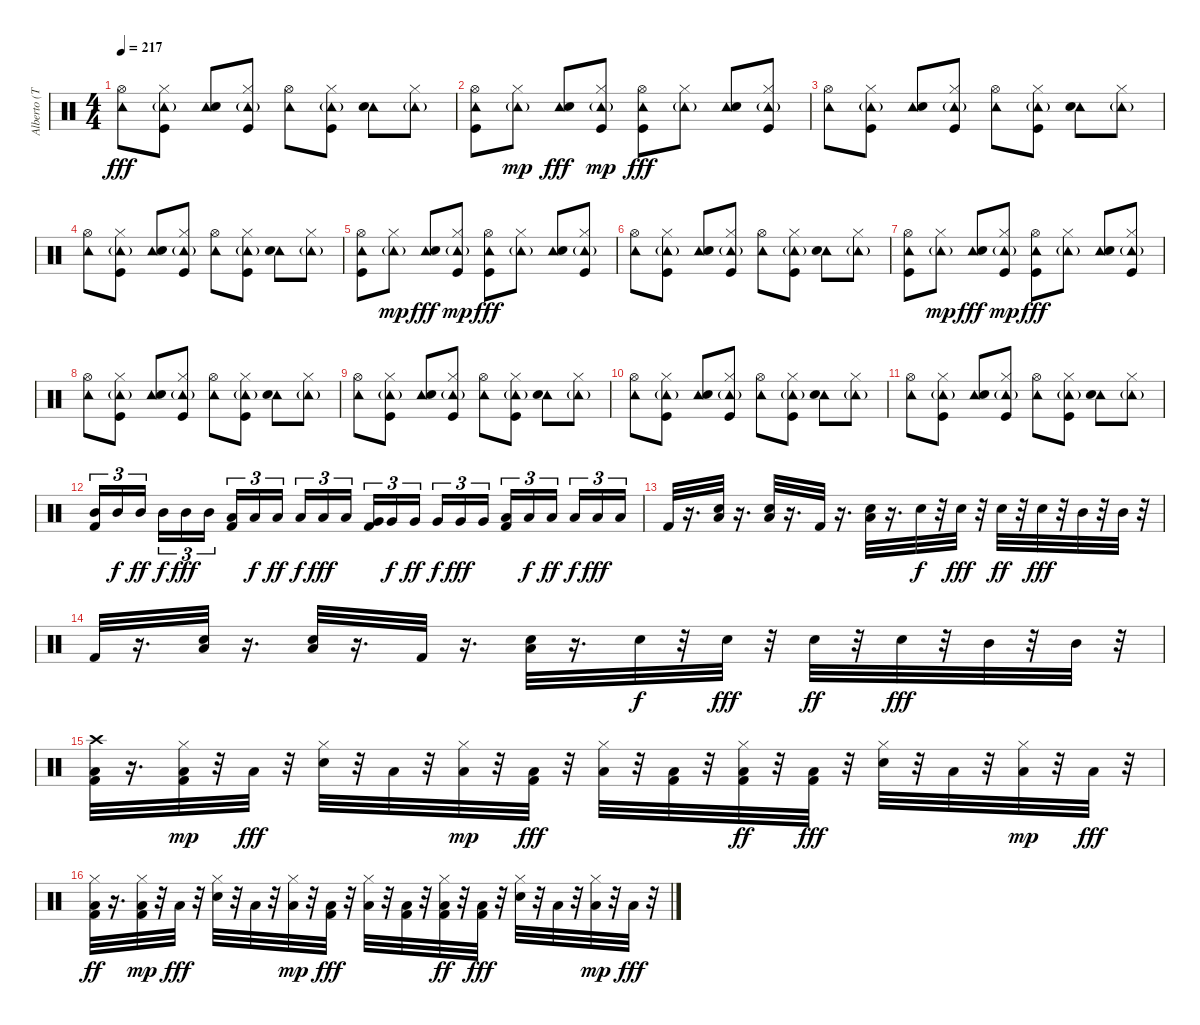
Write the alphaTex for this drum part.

\track ("Alberto (Toshi)" "Alberto (T") {instrument percussion}
\staff {score}
\articulation defaults
\ts (4 4)
\tempo 217
\clef neutral
\ks c
("Tambourine (hit)" "Hi-Hat (open)").8{dy fff} ("Tambourine (hit)"{g} "Hi-Hat (closed)" "Kick (hit)").8 ("Tambourine (hit)" "Electric Snare (hit)").8 ("Tambourine (hit)"{g} "Hi-Hat (closed)" "Kick (hit)").8 ("Tambourine (hit)" "Hi-Hat (open)").8 ("Tambourine (hit)"{g} "Hi-Hat (closed)" "Kick (hit)").8 ("Tambourine (hit)" "Electric Snare (hit)").8 ("Tambourine (hit)"{g} "Hi-Hat (closed)").8 |
("Tambourine (hit)" "Hi-Hat (open)" "Kick (hit)").8 ("Tambourine (hit)"{g} "Hi-Hat (closed)").8{dy mp} ("Tambourine (hit)" "Electric Snare (hit)").8{dy fff} ("Tambourine (hit)"{g} "Hi-Hat (closed)" "Kick (hit)").8{dy mp} ("Tambourine (hit)" "Hi-Hat (open)" "Kick (hit)").8{dy fff} ("Tambourine (hit)"{g} "Hi-Hat (closed)").8 ("Tambourine (hit)" "Electric Snare (hit)").8 ("Tambourine (hit)"{g} "Hi-Hat (closed)" "Kick (hit)").8 |
("Tambourine (hit)" "Hi-Hat (open)").8 ("Tambourine (hit)"{g} "Hi-Hat (closed)" "Kick (hit)").8 ("Tambourine (hit)" "Electric Snare (hit)").8 ("Tambourine (hit)"{g} "Hi-Hat (closed)" "Kick (hit)").8 ("Tambourine (hit)" "Hi-Hat (open)").8 ("Tambourine (hit)"{g} "Hi-Hat (closed)" "Kick (hit)").8 ("Tambourine (hit)" "Electric Snare (hit)").8 ("Tambourine (hit)"{g} "Hi-Hat (closed)").8 |
("Tambourine (hit)" "Hi-Hat (open)").8 ("Tambourine (hit)"{g} "Hi-Hat (closed)" "Kick (hit)").8 ("Tambourine (hit)" "Electric Snare (hit)").8 ("Tambourine (hit)"{g} "Hi-Hat (closed)" "Kick (hit)").8 ("Tambourine (hit)" "Hi-Hat (open)").8 ("Tambourine (hit)"{g} "Hi-Hat (closed)" "Kick (hit)").8 ("Tambourine (hit)" "Electric Snare (hit)").8 ("Tambourine (hit)"{g} "Hi-Hat (closed)").8 |
("Tambourine (hit)" "Hi-Hat (open)" "Kick (hit)").8 ("Tambourine (hit)"{g} "Hi-Hat (closed)").8{dy mp} ("Tambourine (hit)" "Electric Snare (hit)").8{dy fff} ("Tambourine (hit)"{g} "Hi-Hat (closed)" "Kick (hit)").8{dy mp} ("Tambourine (hit)" "Hi-Hat (open)" "Kick (hit)").8{dy fff} ("Tambourine (hit)"{g} "Hi-Hat (closed)").8 ("Tambourine (hit)" "Electric Snare (hit)").8 ("Tambourine (hit)"{g} "Hi-Hat (closed)" "Kick (hit)").8 |
("Tambourine (hit)" "Hi-Hat (open)").8 ("Tambourine (hit)"{g} "Hi-Hat (closed)" "Kick (hit)").8 ("Tambourine (hit)" "Electric Snare (hit)").8 ("Tambourine (hit)"{g} "Hi-Hat (closed)" "Kick (hit)").8 ("Tambourine (hit)" "Hi-Hat (open)").8 ("Tambourine (hit)"{g} "Hi-Hat (closed)" "Kick (hit)").8 ("Tambourine (hit)" "Electric Snare (hit)").8 ("Tambourine (hit)"{g} "Hi-Hat (closed)").8 |
("Tambourine (hit)" "Hi-Hat (open)" "Kick (hit)").8 ("Tambourine (hit)"{g} "Hi-Hat (closed)").8{dy mp} ("Tambourine (hit)" "Electric Snare (hit)").8{dy fff} ("Tambourine (hit)"{g} "Hi-Hat (closed)" "Kick (hit)").8{dy mp} ("Tambourine (hit)" "Hi-Hat (open)" "Kick (hit)").8{dy fff} ("Tambourine (hit)"{g} "Hi-Hat (closed)").8 ("Tambourine (hit)" "Electric Snare (hit)").8 ("Tambourine (hit)"{g} "Hi-Hat (closed)" "Kick (hit)").8 |
("Tambourine (hit)" "Hi-Hat (open)").8 ("Tambourine (hit)"{g} "Hi-Hat (closed)" "Kick (hit)").8 ("Tambourine (hit)" "Electric Snare (hit)").8 ("Tambourine (hit)"{g} "Hi-Hat (closed)" "Kick (hit)").8 ("Tambourine (hit)" "Hi-Hat (open)").8 ("Tambourine (hit)"{g} "Hi-Hat (closed)" "Kick (hit)").8 ("Tambourine (hit)" "Electric Snare (hit)").8 ("Tambourine (hit)"{g} "Hi-Hat (closed)").8 |
("Tambourine (hit)" "Hi-Hat (open)").8 ("Tambourine (hit)"{g} "Hi-Hat (closed)" "Kick (hit)").8 ("Tambourine (hit)" "Electric Snare (hit)").8 ("Tambourine (hit)"{g} "Hi-Hat (closed)" "Kick (hit)").8 ("Tambourine (hit)" "Hi-Hat (open)").8 ("Tambourine (hit)"{g} "Hi-Hat (closed)" "Kick (hit)").8 ("Tambourine (hit)" "Electric Snare (hit)").8 ("Tambourine (hit)"{g} "Hi-Hat (closed)").8 |
("Tambourine (hit)" "Hi-Hat (open)").8 ("Tambourine (hit)"{g} "Hi-Hat (closed)" "Kick (hit)").8 ("Tambourine (hit)" "Electric Snare (hit)").8 ("Tambourine (hit)"{g} "Hi-Hat (closed)" "Kick (hit)").8 ("Tambourine (hit)" "Hi-Hat (open)").8 ("Tambourine (hit)"{g} "Hi-Hat (closed)" "Kick (hit)").8 ("Tambourine (hit)" "Electric Snare (hit)").8 ("Tambourine (hit)"{g} "Hi-Hat (closed)").8 |
("Tambourine (hit)" "Hi-Hat (open)").8 ("Tambourine (hit)"{g} "Hi-Hat (closed)" "Kick (hit)").8 ("Tambourine (hit)" "Electric Snare (hit)").8 ("Tambourine (hit)"{g} "Hi-Hat (closed)" "Kick (hit)").8 ("Tambourine (hit)" "Hi-Hat (open)").8 ("Tambourine (hit)"{g} "Hi-Hat (closed)" "Kick (hit)").8 ("Tambourine (hit)" "Electric Snare (hit)").8 ("Tambourine (hit)"{g} "Hi-Hat (closed)").8 |
("Mid Tom (hit)" "Kick (hit) 2").16{tu (3 2)} "Mid Tom (hit)".16{tu (3 2) dy f} "Mid Tom (hit)".16{tu (3 2) dy ff} "Mid Tom (hit)".16{tu (3 2) dy f} "Mid Tom (hit)".16{tu (3 2) dy fff} "Mid Tom (hit)".16{tu (3 2)} ("Low Tom (hit)" "Kick (hit) 2").16{tu (3 2)} "Low Tom (hit)".16{tu (3 2) dy f} "Low Tom (hit)".16{tu (3 2) dy ff} "Low Tom (hit)".16{tu (3 2) dy f} "Low Tom (hit)".16{tu (3 2) dy fff} "Low Tom (hit)".16{tu (3 2)} ("Very Low Tom (hit)" "Kick (hit) 2").16{tu (3 2)} "Very Low Tom (hit)".16{tu (3 2) dy f} "Very Low Tom (hit)".16{tu (3 2) dy ff} "Very Low Tom (hit)".16{tu (3 2) dy f} "Very Low Tom (hit)".16{tu (3 2) dy fff} "Very Low Tom (hit)".16{tu (3 2)} ("Low Floor Tom (hit)" "Kick (hit) 2").16{tu (3 2)} "Low Floor Tom (hit)".16{tu (3 2) dy f} "Low Floor Tom (hit)".16{tu (3 2) dy ff} "Low Floor Tom (hit)".16{tu (3 2) dy f} "Low Floor Tom (hit)".16{tu (3 2) dy fff} "Low Floor Tom (hit)".16{tu (3 2)} |
"Kick (hit) 2".32 r.16{d} ("Low Floor Tom (hit)" "Electric Snare (hit)").32 r.16{d} ("Low Floor Tom (hit)" "Electric Snare (hit)").32 r.16{d} "Kick (hit) 2".32 r.16{d} ("Low Floor Tom (hit)" "Electric Snare (hit)").32 r.16{d} "Electric Snare (hit)".32{dy f} r.32 "Electric Snare (hit)".32{dy fff} r.32 "Electric Snare (hit)".32{dy ff} r.32 "Electric Snare (hit)".32{dy fff} r.32 "Mid Tom (hit)".32 r.32 "Mid Tom (hit)".32 r.32 |
"Kick (hit) 2".32 r.16{d} ("Low Floor Tom (hit)" "Electric Snare (hit)").32 r.16{d} ("Low Floor Tom (hit)" "Electric Snare (hit)").32 r.16{d} "Kick (hit) 2".32 r.16{d} ("Low Floor Tom (hit)" "Electric Snare (hit)").32 r.16{d} "Electric Snare (hit)".32{dy f} r.32 "Electric Snare (hit)".32{dy fff} r.32 "Electric Snare (hit)".32{dy ff} r.32 "Electric Snare (hit)".32{dy fff} r.32 "Mid Tom (hit)".32 r.32 "Mid Tom (hit)".32 r.32 |
("Low Floor Tom (hit)" "Kick (hit) 2" "Crash high (hit)").32 r.16{d} ("Low Floor Tom (hit)" "Kick (hit) 2" "Hi-Hat (closed)").32{dy mp} r.32 "Low Floor Tom (hit)".32{dy fff} r.32 ("Electric Snare (hit)" "Hi-Hat (closed)").32 r.32 "Low Floor Tom (hit)".32 r.32 ("Low Floor Tom (hit)" "Hi-Hat (closed)").32{dy mp} r.32 ("Kick (hit) 2" "Low Tom (hit)").32{dy fff} r.32 ("Low Floor Tom (hit)" "Hi-Hat (closed)").32 r.32 ("Kick (hit) 2" "Low Tom (hit)").32 r.32 ("Kick (hit) 2" "Hi-Hat (closed)" "Low Tom (hit)").32{dy ff} r.32 ("Kick (hit) 2" "Low Tom (hit)").32{dy fff} r.32 ("Electric Snare (hit)" "Hi-Hat (closed)").32 r.32 "Low Tom (hit)".32 r.32 ("Low Floor Tom (hit)" "Hi-Hat (closed)").32{dy mp} r.32 "Low Tom (hit)".32{dy fff} r.32 |
("Hi-Hat (closed)" "Low Floor Tom (hit)" "Kick (hit) 2").32{dy ff} r.16{d} ("Low Floor Tom (hit)" "Kick (hit) 2" "Hi-Hat (closed)").32{dy mp} r.32 "Low Floor Tom (hit)".32{dy fff} r.32 ("Electric Snare (hit)" "Hi-Hat (closed)").32 r.32 "Low Floor Tom (hit)".32 r.32 ("Low Floor Tom (hit)" "Hi-Hat (closed)").32{dy mp} r.32 ("Kick (hit) 2" "Low Tom (hit)").32{dy fff} r.32 ("Low Floor Tom (hit)" "Hi-Hat (closed)").32 r.32 ("Kick (hit) 2" "Low Tom (hit)").32 r.32 ("Kick (hit) 2" "Hi-Hat (closed)" "Low Tom (hit)").32{dy ff} r.32 ("Kick (hit) 2" "Low Tom (hit)").32{dy fff} r.32 ("Electric Snare (hit)" "Hi-Hat (closed)").32 r.32 "Low Tom (hit)".32 r.32 ("Low Floor Tom (hit)" "Hi-Hat (closed)").32{dy mp} r.32 "Low Tom (hit)".32{dy fff} r.32
